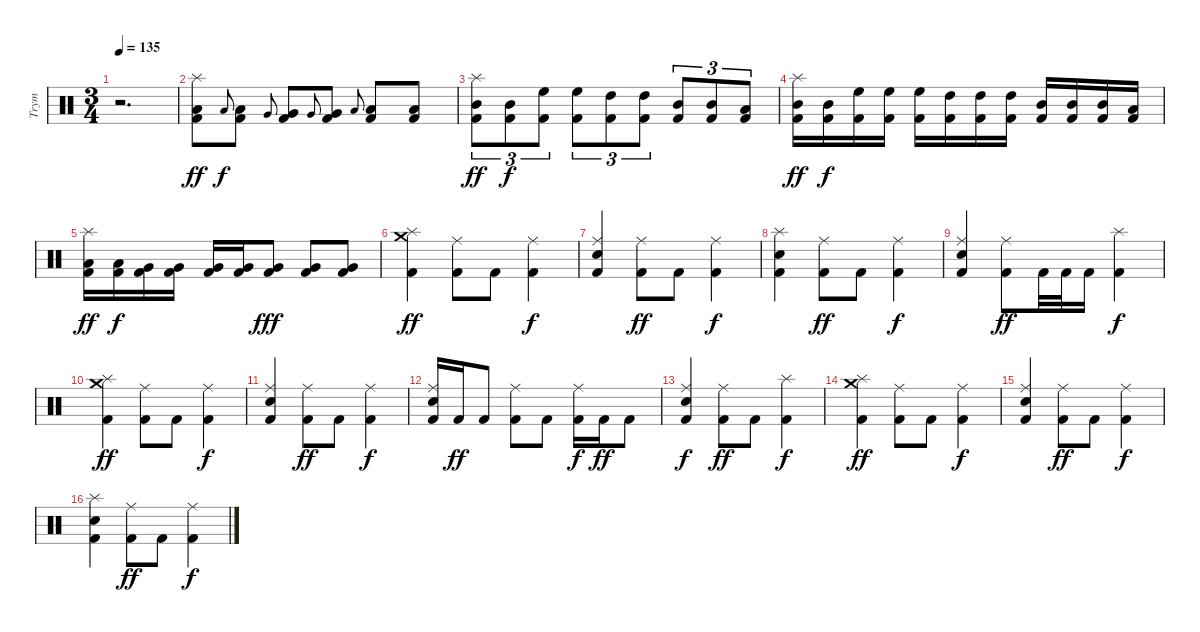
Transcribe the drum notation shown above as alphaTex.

\track ("Trym" "Trym") {instrument percussion}
\staff {score}
\articulation defaults
\ts (3 4)
\tempo 135
\clef neutral
\ks c
r.2{d dy ff} |
("Splash (hit)" "Low Tom (hit)" "Kick (hit) 2").8 "Low Tom (hit)".8{gr onbeat dy f} ("Low Tom (hit)" "Kick (hit) 2").8 "Very Low Tom (hit)".8{gr onbeat} ("Very Low Tom (hit)" "Kick (hit) 2").8 "Very Low Tom (hit)".8{gr onbeat} ("Very Low Tom (hit)" "Kick (hit) 2").8 "Low Tom (hit)".8{gr onbeat} ("Low Tom (hit)" "Kick (hit) 2").8 ("Low Tom (hit)" "Kick (hit) 2").8 |
("Splash (hit)" "Mid Tom (hit)" "Kick (hit) 2").8{tu (3 2) dy ff} ("Mid Tom (hit)" "Kick (hit) 2").8{tu (3 2) dy f} ("High Floor Tom (hit)" "Kick (hit) 2").8{tu (3 2)} ("High Floor Tom (hit)" "Kick (hit) 2").8{tu (3 2)} ("High Tom (hit)" "Kick (hit) 2").8{tu (3 2)} ("High Tom (hit)" "Kick (hit) 2").8{tu (3 2)} ("Mid Tom (hit)" "Kick (hit) 2").8{tu (3 2)} ("Mid Tom (hit)" "Kick (hit) 2").8{tu (3 2)} ("Low Tom (hit)" "Kick (hit) 2").8{tu (3 2)} |
("Splash (hit)" "Mid Tom (hit)" "Kick (hit) 2").16{dy ff} ("Mid Tom (hit)" "Kick (hit) 2").16{dy f} ("High Floor Tom (hit)" "Kick (hit) 2").16 ("High Floor Tom (hit)" "Kick (hit) 2").16 ("High Floor Tom (hit)" "Kick (hit) 2").16 ("High Tom (hit)" "Kick (hit) 2").16 ("High Tom (hit)" "Kick (hit) 2").16 ("High Tom (hit)" "Kick (hit) 2").16 ("Mid Tom (hit)" "Kick (hit) 2").16 ("Mid Tom (hit)" "Kick (hit) 2").16 ("Mid Tom (hit)" "Kick (hit) 2").16 ("Low Tom (hit)" "Kick (hit) 2").16 |
("Splash (hit)" "Low Tom (hit)" "Kick (hit) 2").16{dy ff} ("Low Tom (hit)" "Kick (hit) 2").16{dy f} ("Very Low Tom (hit)" "Kick (hit) 2").16 ("Very Low Tom (hit)" "Kick (hit) 2").16 ("Very Low Tom (hit)" "Kick (hit) 2").16 ("Very Low Tom (hit)" "Kick (hit) 2").16 ("Very Low Tom (hit)" "Kick (hit) 2").8{dy fff} ("Very Low Tom (hit)" "Kick (hit) 2").8 ("Very Low Tom (hit)" "Kick (hit) 2").8 |
("Crash medium (hit)" "Splash (hit)" "Kick (hit) 2").4{dy ff} ("Ride (middle)" "Kick (hit) 2").8 "Kick (hit) 2".8 ("Ride (middle)" "Kick (hit) 2").4{dy f} |
("Snare (hit) 2" "Ride (middle)" "Kick (hit) 2").4 ("Ride (middle)" "Kick (hit) 2").8{dy ff} "Kick (hit) 2".8 ("Ride (middle)" "Kick (hit) 2").4{dy f} |
("Snare (hit) 2" "Splash (hit)" "Kick (hit) 2").4 ("Ride (middle)" "Kick (hit) 2").8{dy ff} "Kick (hit) 2".8 ("Ride (middle)" "Kick (hit) 2").4{dy f} |
("Snare (hit) 2" "Ride (middle)" "Kick (hit) 2").4 ("Ride (middle)" "Kick (hit) 2").8{dy ff} "Kick (hit) 2".32 "Kick (hit) 2".32 "Kick (hit) 2".16 ("Splash (hit)" "Kick (hit) 2").4{dy f} |
("Crash medium (hit)" "Splash (hit)" "Kick (hit) 2").4{dy ff} ("Ride (middle)" "Kick (hit) 2").8 "Kick (hit) 2".8 ("Ride (middle)" "Kick (hit) 2").4{dy f} |
("Snare (hit) 2" "Ride (middle)" "Kick (hit) 2").4 ("Ride (middle)" "Kick (hit) 2").8{dy ff} "Kick (hit) 2".8 ("Ride (middle)" "Kick (hit) 2").4{dy f} |
("Snare (hit) 2" "Ride (middle)" "Kick (hit) 2").16 "Kick (hit) 2".16{dy ff} "Kick (hit) 2".8 ("Ride (middle)" "Kick (hit) 2").8 "Kick (hit) 2".8 ("Ride (middle)" "Kick (hit) 2").16{dy f} "Kick (hit) 2".16{dy ff} "Kick (hit) 2".8 |
("Snare (hit) 2" "Ride (middle)" "Kick (hit) 2").4{dy f} ("Ride (middle)" "Kick (hit) 2").8{dy ff} "Kick (hit) 2".8 ("Splash (hit)" "Kick (hit) 2").4{dy f} |
("Crash medium (hit)" "Splash (hit)" "Kick (hit) 2").4{dy ff} ("Ride (middle)" "Kick (hit) 2").8 "Kick (hit) 2".8 ("Ride (middle)" "Kick (hit) 2").4{dy f} |
("Snare (hit) 2" "Ride (middle)" "Kick (hit) 2").4 ("Ride (middle)" "Kick (hit) 2").8{dy ff} "Kick (hit) 2".8 ("Ride (middle)" "Kick (hit) 2").4{dy f} |
("Snare (hit) 2" "Splash (hit)" "Kick (hit) 2").4 ("Ride (middle)" "Kick (hit) 2").8{dy ff} "Kick (hit) 2".8 ("Ride (middle)" "Kick (hit) 2").4{dy f}
